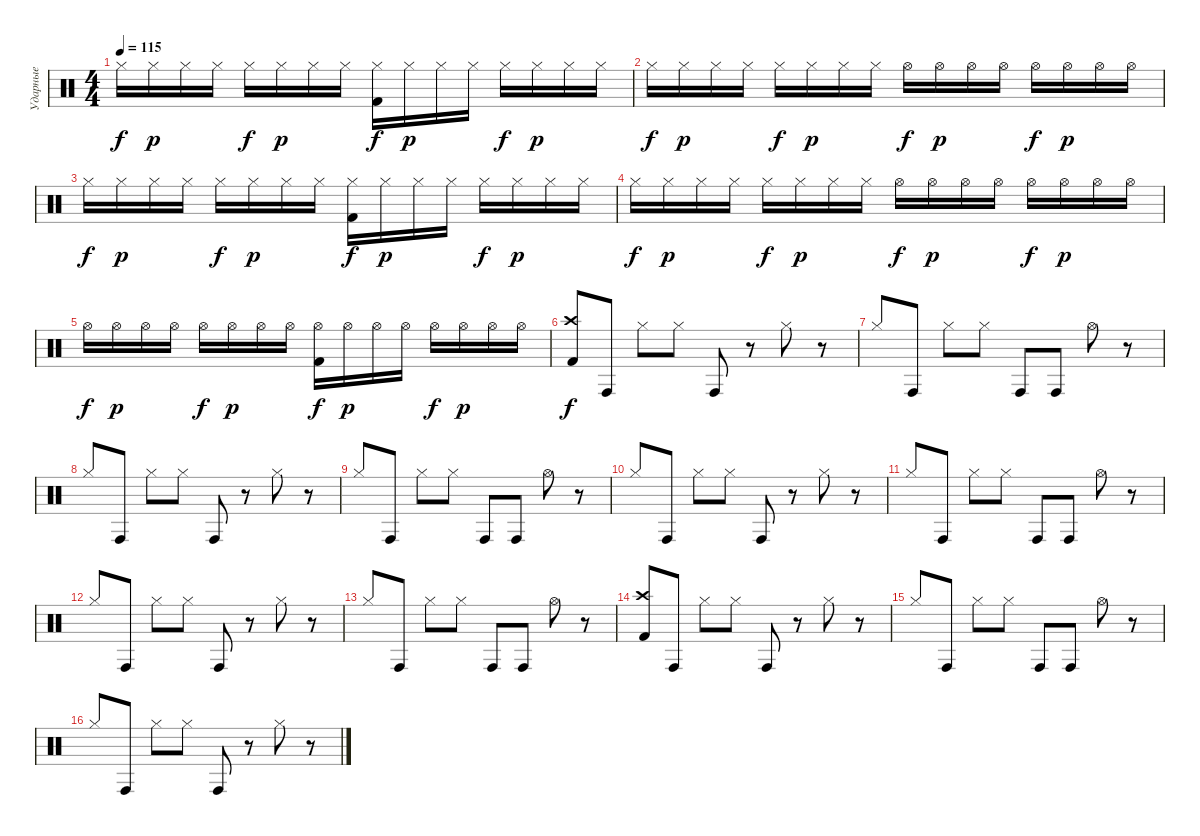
\track ("Ударные" "Ударные") {instrument percussion}
\staff {score}
\articulation defaults
\ts (4 4)
\tempo 115
\clef neutral
\ks c "Hi-Hat (closed)".16{dy f} "Hi-Hat (closed)".16{dy p} "Hi-Hat (closed)".16 "Hi-Hat (closed)".16 "Hi-Hat (closed)".16{dy f} "Hi-Hat (closed)".16{dy p} "Hi-Hat (closed)".16 "Hi-Hat (closed)".16
("Hi-Hat (closed)" "Kick (hit) 2").16{dy f} "Hi-Hat (closed)".16{dy p} "Hi-Hat (closed)".16 "Hi-Hat (closed)".16 "Hi-Hat (closed)".16{dy f} "Hi-Hat (closed)".16{dy p} "Hi-Hat (closed)".16 "Hi-Hat (closed)".16 |
"Hi-Hat (closed)".16{dy f} "Hi-Hat (closed)".16{dy p} "Hi-Hat (closed)".16 "Hi-Hat (closed)".16 "Hi-Hat (closed)".16{dy f} "Hi-Hat (closed)".16{dy p} "Hi-Hat (closed)".16 "Hi-Hat (closed)".16 "Hi-Hat (open)".16{dy f} "Hi-Hat (open)".16{dy p} "Hi-Hat (open)".16 "Hi-Hat (open)".16 "Hi-Hat (open)".16{dy f} "Hi-Hat (open)".16{dy p} "Hi-Hat (open)".16 "Hi-Hat (open)".16 |
"Hi-Hat (closed)".16{dy f} "Hi-Hat (closed)".16{dy p} "Hi-Hat (closed)".16 "Hi-Hat (closed)".16 "Hi-Hat (closed)".16{dy f} "Hi-Hat (closed)".16{dy p} "Hi-Hat (closed)".16 "Hi-Hat (closed)".16 ("Hi-Hat (closed)" "Kick (hit) 2").16{dy f} "Hi-Hat (closed)".16{dy p} "Hi-Hat (closed)".16 "Hi-Hat (closed)".16 "Hi-Hat (closed)".16{dy f} "Hi-Hat (closed)".16{dy p} "Hi-Hat (closed)".16 "Hi-Hat (closed)".16 |
"Hi-Hat (closed)".16{dy f} "Hi-Hat (closed)".16{dy p} "Hi-Hat (closed)".16 "Hi-Hat (closed)".16 "Hi-Hat (closed)".16{dy f} "Hi-Hat (closed)".16{dy p} "Hi-Hat (closed)".16 "Hi-Hat (closed)".16 "Hi-Hat (open)".16{dy f} "Hi-Hat (open)".16{dy p} "Hi-Hat (open)".16 "Hi-Hat (open)".16 "Hi-Hat (open)".16{dy f} "Hi-Hat (open)".16{dy p} "Hi-Hat (open)".16 "Hi-Hat (open)".16 |
"Hi-Hat (open)".16{dy f} "Hi-Hat (open)".16{dy p} "Hi-Hat (open)".16 "Hi-Hat (open)".16 "Hi-Hat (open)".16{dy f} "Hi-Hat (open)".16{dy p} "Hi-Hat (open)".16 "Hi-Hat (open)".16 ("Hi-Hat (open)" "Kick (hit) 2").16{dy f} "Hi-Hat (open)".16{dy p} "Hi-Hat (open)".16 "Hi-Hat (open)".16 "Hi-Hat (open)".16{dy f} "Hi-Hat (open)".16{dy p} "Hi-Hat (open)".16 "Hi-Hat (open)".16 |
("Crash high (hit)" "Kick (hit) 2").8{dy f} "Conga high (hit)".8 "Hi-Hat (closed)".8 "Hi-Hat (closed)".8 "Conga high (hit)".8 r.8 "Hi-Hat (closed)".8 r.8 |
"Hi-Hat (closed)".8 "Conga high (hit)".8 "Hi-Hat (closed)".8 "Hi-Hat (closed)".8 "Conga high (hit)".8 "Conga high (hit)".8 "Hi-Hat (open)".8 r.8 |
"Hi-Hat (closed)".8 "Conga high (hit)".8 "Hi-Hat (closed)".8 "Hi-Hat (closed)".8 "Conga high (hit)".8 r.8 "Hi-Hat (closed)".8 r.8 |
"Hi-Hat (closed)".8 "Conga high (hit)".8 "Hi-Hat (closed)".8 "Hi-Hat (closed)".8 "Conga high (hit)".8 "Conga high (hit)".8 "Hi-Hat (open)".8 r.8 |
"Hi-Hat (closed)".8 "Conga high (hit)".8 "Hi-Hat (closed)".8 "Hi-Hat (closed)".8 "Conga high (hit)".8 r.8 "Hi-Hat (closed)".8 r.8 |
"Hi-Hat (closed)".8 "Conga high (hit)".8 "Hi-Hat (closed)".8 "Hi-Hat (closed)".8 "Conga high (hit)".8 "Conga high (hit)".8 "Hi-Hat (open)".8 r.8 |
"Hi-Hat (closed)".8 "Conga high (hit)".8 "Hi-Hat (closed)".8 "Hi-Hat (closed)".8 "Conga high (hit)".8 r.8 "Hi-Hat (closed)".8 r.8 |
"Hi-Hat (closed)".8 "Conga high (hit)".8 "Hi-Hat (closed)".8 "Hi-Hat (closed)".8 "Conga high (hit)".8 "Conga high (hit)".8 "Hi-Hat (open)".8 r.8 |
("Crash high (hit)" "Kick (hit) 2").8 "Conga high (hit)".8 "Hi-Hat (closed)".8 "Hi-Hat (closed)".8 "Conga high (hit)".8 r.8 "Hi-Hat (closed)".8 r.8 |
"Hi-Hat (closed)".8 "Conga high (hit)".8 "Hi-Hat (closed)".8 "Hi-Hat (closed)".8 "Conga high (hit)".8 "Conga high (hit)".8 "Hi-Hat (open)".8 r.8 |
"Hi-Hat (closed)".8 "Conga high (hit)".8 "Hi-Hat (closed)".8 "Hi-Hat (closed)".8 "Conga high (hit)".8 r.8 "Hi-Hat (closed)".8 r.8
